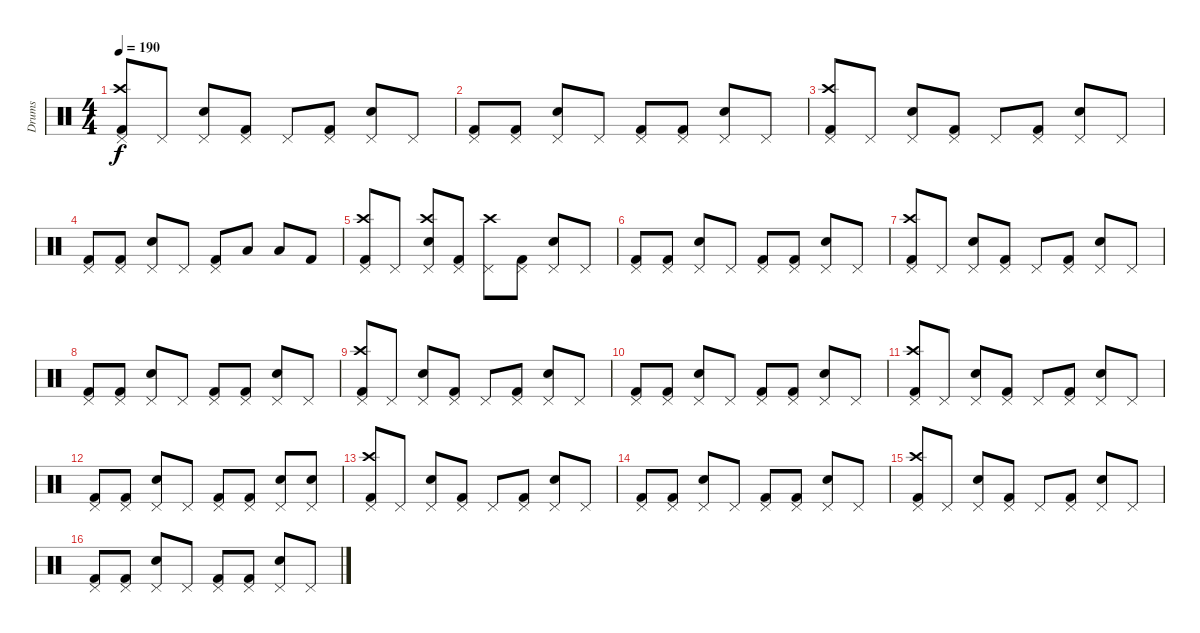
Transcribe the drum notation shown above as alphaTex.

\track ("Drums" "Drums") {instrument percussion}
\staff {score}
\articulation defaults
\ts (4 4)
\tempo 190
\clef neutral
\ks c
("Pedal Hi-Hat (hit)" "Crash high (hit)" "Kick (hit) 2").8{dy f} "Pedal Hi-Hat (hit)".8 ("Pedal Hi-Hat (hit)" "Snare (hit) 2").8 ("Pedal Hi-Hat (hit)" "Kick (hit) 2").8 "Pedal Hi-Hat (hit)".8 ("Pedal Hi-Hat (hit)" "Kick (hit) 2").8 ("Pedal Hi-Hat (hit)" "Snare (hit) 2").8 "Pedal Hi-Hat (hit)".8 |
("Pedal Hi-Hat (hit)" "Kick (hit) 2").8 ("Pedal Hi-Hat (hit)" "Kick (hit) 2").8 ("Pedal Hi-Hat (hit)" "Snare (hit) 2").8 "Pedal Hi-Hat (hit)".8 ("Pedal Hi-Hat (hit)" "Kick (hit) 2").8 ("Pedal Hi-Hat (hit)" "Kick (hit) 2").8 ("Pedal Hi-Hat (hit)" "Snare (hit) 2").8 "Pedal Hi-Hat (hit)".8 |
("Pedal Hi-Hat (hit)" "Crash high (hit)" "Kick (hit) 2").8 "Pedal Hi-Hat (hit)".8 ("Pedal Hi-Hat (hit)" "Snare (hit) 2").8 ("Pedal Hi-Hat (hit)" "Kick (hit) 2").8 "Pedal Hi-Hat (hit)".8 ("Pedal Hi-Hat (hit)" "Kick (hit) 2").8 ("Pedal Hi-Hat (hit)" "Snare (hit) 2").8 "Pedal Hi-Hat (hit)".8 |
("Pedal Hi-Hat (hit)" "Kick (hit) 2").8 ("Pedal Hi-Hat (hit)" "Kick (hit) 2").8 ("Pedal Hi-Hat (hit)" "Snare (hit) 2").8 "Pedal Hi-Hat (hit)".8 ("Pedal Hi-Hat (hit)" "Kick (hit) 2").8 "Low Tom (hit)".8 "Low Tom (hit)".8 "Kick (hit) 2".8 |
("Pedal Hi-Hat (hit)" "Crash high (hit)" "Kick (hit) 2").8 "Pedal Hi-Hat (hit)".8 ("Pedal Hi-Hat (hit)" "Crash high (hit)" "Snare (hit) 2").8 ("Pedal Hi-Hat (hit)" "Kick (hit) 2").8 ("Pedal Hi-Hat (hit)" "Crash high (hit)").8 ("Pedal Hi-Hat (hit)" "Kick (hit) 2").8 ("Pedal Hi-Hat (hit)" "Snare (hit) 2").8 "Pedal Hi-Hat (hit)".8 |
("Pedal Hi-Hat (hit)" "Kick (hit) 2").8 ("Pedal Hi-Hat (hit)" "Kick (hit) 2").8 ("Pedal Hi-Hat (hit)" "Snare (hit) 2").8 "Pedal Hi-Hat (hit)".8 ("Pedal Hi-Hat (hit)" "Kick (hit) 2").8 ("Pedal Hi-Hat (hit)" "Kick (hit) 2").8 ("Pedal Hi-Hat (hit)" "Snare (hit) 2").8 "Pedal Hi-Hat (hit)".8 |
("Pedal Hi-Hat (hit)" "Crash high (hit)" "Kick (hit) 2").8 "Pedal Hi-Hat (hit)".8 ("Pedal Hi-Hat (hit)" "Snare (hit) 2").8 ("Pedal Hi-Hat (hit)" "Kick (hit) 2").8 "Pedal Hi-Hat (hit)".8 ("Pedal Hi-Hat (hit)" "Kick (hit) 2").8 ("Pedal Hi-Hat (hit)" "Snare (hit) 2").8 "Pedal Hi-Hat (hit)".8 |
("Pedal Hi-Hat (hit)" "Kick (hit) 2").8 ("Pedal Hi-Hat (hit)" "Kick (hit) 2").8 ("Pedal Hi-Hat (hit)" "Snare (hit) 2").8 "Pedal Hi-Hat (hit)".8 ("Pedal Hi-Hat (hit)" "Kick (hit) 2").8 ("Pedal Hi-Hat (hit)" "Kick (hit) 2").8 ("Pedal Hi-Hat (hit)" "Snare (hit) 2").8 "Pedal Hi-Hat (hit)".8 |
("Pedal Hi-Hat (hit)" "Crash high (hit)" "Kick (hit) 2").8 "Pedal Hi-Hat (hit)".8 ("Pedal Hi-Hat (hit)" "Snare (hit) 2").8 ("Pedal Hi-Hat (hit)" "Kick (hit) 2").8 "Pedal Hi-Hat (hit)".8 ("Pedal Hi-Hat (hit)" "Kick (hit) 2").8 ("Pedal Hi-Hat (hit)" "Snare (hit) 2").8 "Pedal Hi-Hat (hit)".8 |
("Pedal Hi-Hat (hit)" "Kick (hit) 2").8 ("Pedal Hi-Hat (hit)" "Kick (hit) 2").8 ("Pedal Hi-Hat (hit)" "Snare (hit) 2").8 "Pedal Hi-Hat (hit)".8 ("Pedal Hi-Hat (hit)" "Kick (hit) 2").8 ("Pedal Hi-Hat (hit)" "Kick (hit) 2").8 ("Pedal Hi-Hat (hit)" "Snare (hit) 2").8 "Pedal Hi-Hat (hit)".8 |
("Pedal Hi-Hat (hit)" "Crash high (hit)" "Kick (hit) 2").8 "Pedal Hi-Hat (hit)".8 ("Pedal Hi-Hat (hit)" "Snare (hit) 2").8 ("Pedal Hi-Hat (hit)" "Kick (hit) 2").8 "Pedal Hi-Hat (hit)".8 ("Pedal Hi-Hat (hit)" "Kick (hit) 2").8 ("Pedal Hi-Hat (hit)" "Snare (hit) 2").8 "Pedal Hi-Hat (hit)".8 |
("Pedal Hi-Hat (hit)" "Kick (hit) 2").8 ("Pedal Hi-Hat (hit)" "Kick (hit) 2").8 ("Pedal Hi-Hat (hit)" "Snare (hit) 2").8 "Pedal Hi-Hat (hit)".8 ("Pedal Hi-Hat (hit)" "Kick (hit) 2").8 ("Pedal Hi-Hat (hit)" "Kick (hit) 2").8 ("Pedal Hi-Hat (hit)" "Snare (hit) 2").8 ("Pedal Hi-Hat (hit)" "Snare (hit) 2").8 |
("Pedal Hi-Hat (hit)" "Crash high (hit)" "Kick (hit) 2").8 "Pedal Hi-Hat (hit)".8 ("Pedal Hi-Hat (hit)" "Snare (hit) 2").8 ("Pedal Hi-Hat (hit)" "Kick (hit) 2").8 "Pedal Hi-Hat (hit)".8 ("Pedal Hi-Hat (hit)" "Kick (hit) 2").8 ("Pedal Hi-Hat (hit)" "Snare (hit) 2").8 "Pedal Hi-Hat (hit)".8 |
("Pedal Hi-Hat (hit)" "Kick (hit) 2").8 ("Pedal Hi-Hat (hit)" "Kick (hit) 2").8 ("Pedal Hi-Hat (hit)" "Snare (hit) 2").8 "Pedal Hi-Hat (hit)".8 ("Pedal Hi-Hat (hit)" "Kick (hit) 2").8 ("Pedal Hi-Hat (hit)" "Kick (hit) 2").8 ("Pedal Hi-Hat (hit)" "Snare (hit) 2").8 "Pedal Hi-Hat (hit)".8 |
("Pedal Hi-Hat (hit)" "Crash high (hit)" "Kick (hit) 2").8 "Pedal Hi-Hat (hit)".8 ("Pedal Hi-Hat (hit)" "Snare (hit) 2").8 ("Pedal Hi-Hat (hit)" "Kick (hit) 2").8 "Pedal Hi-Hat (hit)".8 ("Pedal Hi-Hat (hit)" "Kick (hit) 2").8 ("Pedal Hi-Hat (hit)" "Snare (hit) 2").8 "Pedal Hi-Hat (hit)".8 |
("Pedal Hi-Hat (hit)" "Kick (hit) 2").8 ("Pedal Hi-Hat (hit)" "Kick (hit) 2").8 ("Pedal Hi-Hat (hit)" "Snare (hit) 2").8 "Pedal Hi-Hat (hit)".8 ("Pedal Hi-Hat (hit)" "Kick (hit) 2").8 ("Pedal Hi-Hat (hit)" "Kick (hit) 2").8 ("Pedal Hi-Hat (hit)" "Snare (hit) 2").8 "Pedal Hi-Hat (hit)".8
